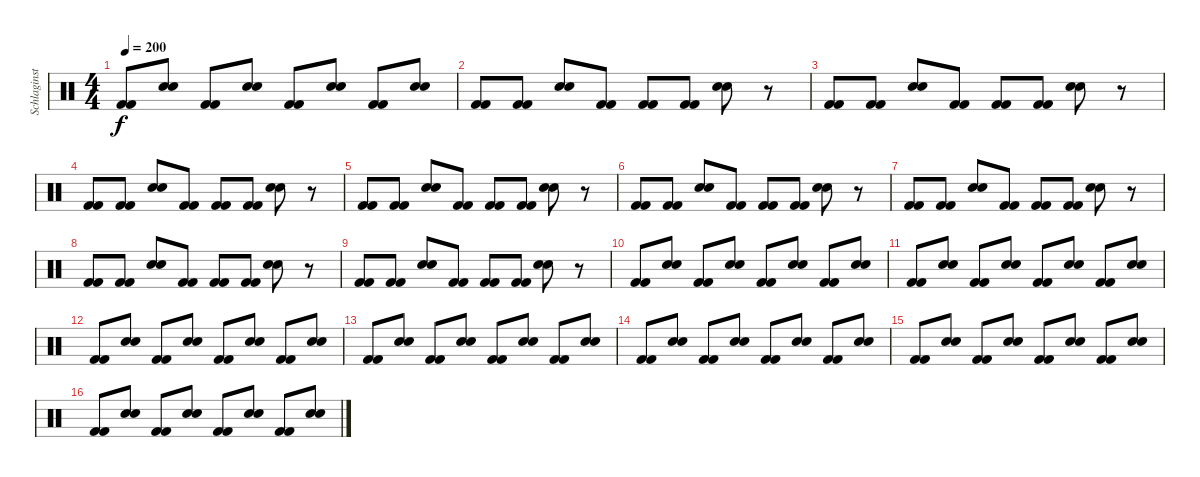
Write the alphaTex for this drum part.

\track ("Schlaginstrumente - Auswahl" "Schlaginst") {instrument percussion}
\staff {score}
\articulation defaults
\ts (4 4)
\tempo 200
\clef neutral
\ks c
("Kick (hit) 2" "Kick (hit) 2").8{dy f} ("Electric Snare (hit)" "Electric Snare (hit)").8 ("Kick (hit) 2" "Kick (hit) 2").8 ("Electric Snare (hit)" "Electric Snare (hit)").8 ("Kick (hit) 2" "Kick (hit) 2").8 ("Electric Snare (hit)" "Electric Snare (hit)").8 ("Kick (hit) 2" "Kick (hit) 2").8 ("Electric Snare (hit)" "Electric Snare (hit)").8 |
("Kick (hit) 2" "Kick (hit) 2").8 ("Kick (hit) 2" "Kick (hit) 2").8 ("Electric Snare (hit)" "Electric Snare (hit)").8 ("Kick (hit) 2" "Kick (hit) 2").8 ("Kick (hit) 2" "Kick (hit) 2").8 ("Kick (hit) 2" "Kick (hit) 2").8 ("Electric Snare (hit)" "Electric Snare (hit)").8 r.8 |
("Kick (hit) 2" "Kick (hit) 2").8 ("Kick (hit) 2" "Kick (hit) 2").8 ("Electric Snare (hit)" "Electric Snare (hit)").8 ("Kick (hit) 2" "Kick (hit) 2").8 ("Kick (hit) 2" "Kick (hit) 2").8 ("Kick (hit) 2" "Kick (hit) 2").8 ("Electric Snare (hit)" "Electric Snare (hit)").8 r.8 |
("Kick (hit) 2" "Kick (hit) 2").8 ("Kick (hit) 2" "Kick (hit) 2").8 ("Electric Snare (hit)" "Electric Snare (hit)").8 ("Kick (hit) 2" "Kick (hit) 2").8 ("Kick (hit) 2" "Kick (hit) 2").8 ("Kick (hit) 2" "Kick (hit) 2").8 ("Electric Snare (hit)" "Electric Snare (hit)").8 r.8 |
("Kick (hit) 2" "Kick (hit) 2").8 ("Kick (hit) 2" "Kick (hit) 2").8 ("Electric Snare (hit)" "Electric Snare (hit)").8 ("Kick (hit) 2" "Kick (hit) 2").8 ("Kick (hit) 2" "Kick (hit) 2").8 ("Kick (hit) 2" "Kick (hit) 2").8 ("Electric Snare (hit)" "Electric Snare (hit)").8 r.8 |
("Kick (hit) 2" "Kick (hit) 2").8 ("Kick (hit) 2" "Kick (hit) 2").8 ("Electric Snare (hit)" "Electric Snare (hit)").8 ("Kick (hit) 2" "Kick (hit) 2").8 ("Kick (hit) 2" "Kick (hit) 2").8 ("Kick (hit) 2" "Kick (hit) 2").8 ("Electric Snare (hit)" "Electric Snare (hit)").8 r.8 |
("Kick (hit) 2" "Kick (hit) 2").8 ("Kick (hit) 2" "Kick (hit) 2").8 ("Electric Snare (hit)" "Electric Snare (hit)").8 ("Kick (hit) 2" "Kick (hit) 2").8 ("Kick (hit) 2" "Kick (hit) 2").8 ("Kick (hit) 2" "Kick (hit) 2").8 ("Electric Snare (hit)" "Electric Snare (hit)").8 r.8 |
("Kick (hit) 2" "Kick (hit) 2").8 ("Kick (hit) 2" "Kick (hit) 2").8 ("Electric Snare (hit)" "Electric Snare (hit)").8 ("Kick (hit) 2" "Kick (hit) 2").8 ("Kick (hit) 2" "Kick (hit) 2").8 ("Kick (hit) 2" "Kick (hit) 2").8 ("Electric Snare (hit)" "Electric Snare (hit)").8 r.8 |
("Kick (hit) 2" "Kick (hit) 2").8 ("Kick (hit) 2" "Kick (hit) 2").8 ("Electric Snare (hit)" "Electric Snare (hit)").8 ("Kick (hit) 2" "Kick (hit) 2").8 ("Kick (hit) 2" "Kick (hit) 2").8 ("Kick (hit) 2" "Kick (hit) 2").8 ("Electric Snare (hit)" "Electric Snare (hit)").8 r.8 |
("Kick (hit) 2" "Kick (hit) 2").8 ("Electric Snare (hit)" "Electric Snare (hit)").8 ("Kick (hit) 2" "Kick (hit) 2").8 ("Electric Snare (hit)" "Electric Snare (hit)").8 ("Kick (hit) 2" "Kick (hit) 2").8 ("Electric Snare (hit)" "Electric Snare (hit)").8 ("Kick (hit) 2" "Kick (hit) 2").8 ("Electric Snare (hit)" "Electric Snare (hit)").8 |
("Kick (hit) 2" "Kick (hit) 2").8 ("Electric Snare (hit)" "Electric Snare (hit)").8 ("Kick (hit) 2" "Kick (hit) 2").8 ("Electric Snare (hit)" "Electric Snare (hit)").8 ("Kick (hit) 2" "Kick (hit) 2").8 ("Electric Snare (hit)" "Electric Snare (hit)").8 ("Kick (hit) 2" "Kick (hit) 2").8 ("Electric Snare (hit)" "Electric Snare (hit)").8 |
("Kick (hit) 2" "Kick (hit) 2").8 ("Electric Snare (hit)" "Electric Snare (hit)").8 ("Kick (hit) 2" "Kick (hit) 2").8 ("Electric Snare (hit)" "Electric Snare (hit)").8 ("Kick (hit) 2" "Kick (hit) 2").8 ("Electric Snare (hit)" "Electric Snare (hit)").8 ("Kick (hit) 2" "Kick (hit) 2").8 ("Electric Snare (hit)" "Electric Snare (hit)").8 |
("Kick (hit) 2" "Kick (hit) 2").8 ("Electric Snare (hit)" "Electric Snare (hit)").8 ("Kick (hit) 2" "Kick (hit) 2").8 ("Electric Snare (hit)" "Electric Snare (hit)").8 ("Kick (hit) 2" "Kick (hit) 2").8 ("Electric Snare (hit)" "Electric Snare (hit)").8 ("Kick (hit) 2" "Kick (hit) 2").8 ("Electric Snare (hit)" "Electric Snare (hit)").8 |
("Kick (hit) 2" "Kick (hit) 2").8 ("Electric Snare (hit)" "Electric Snare (hit)").8 ("Kick (hit) 2" "Kick (hit) 2").8 ("Electric Snare (hit)" "Electric Snare (hit)").8 ("Kick (hit) 2" "Kick (hit) 2").8 ("Electric Snare (hit)" "Electric Snare (hit)").8 ("Kick (hit) 2" "Kick (hit) 2").8 ("Electric Snare (hit)" "Electric Snare (hit)").8 |
("Kick (hit) 2" "Kick (hit) 2").8 ("Electric Snare (hit)" "Electric Snare (hit)").8 ("Kick (hit) 2" "Kick (hit) 2").8 ("Electric Snare (hit)" "Electric Snare (hit)").8 ("Kick (hit) 2" "Kick (hit) 2").8 ("Electric Snare (hit)" "Electric Snare (hit)").8 ("Kick (hit) 2" "Kick (hit) 2").8 ("Electric Snare (hit)" "Electric Snare (hit)").8 |
("Kick (hit) 2" "Kick (hit) 2").8 ("Electric Snare (hit)" "Electric Snare (hit)").8 ("Kick (hit) 2" "Kick (hit) 2").8 ("Electric Snare (hit)" "Electric Snare (hit)").8 ("Kick (hit) 2" "Kick (hit) 2").8 ("Electric Snare (hit)" "Electric Snare (hit)").8 ("Kick (hit) 2" "Kick (hit) 2").8 ("Electric Snare (hit)" "Electric Snare (hit)").8
